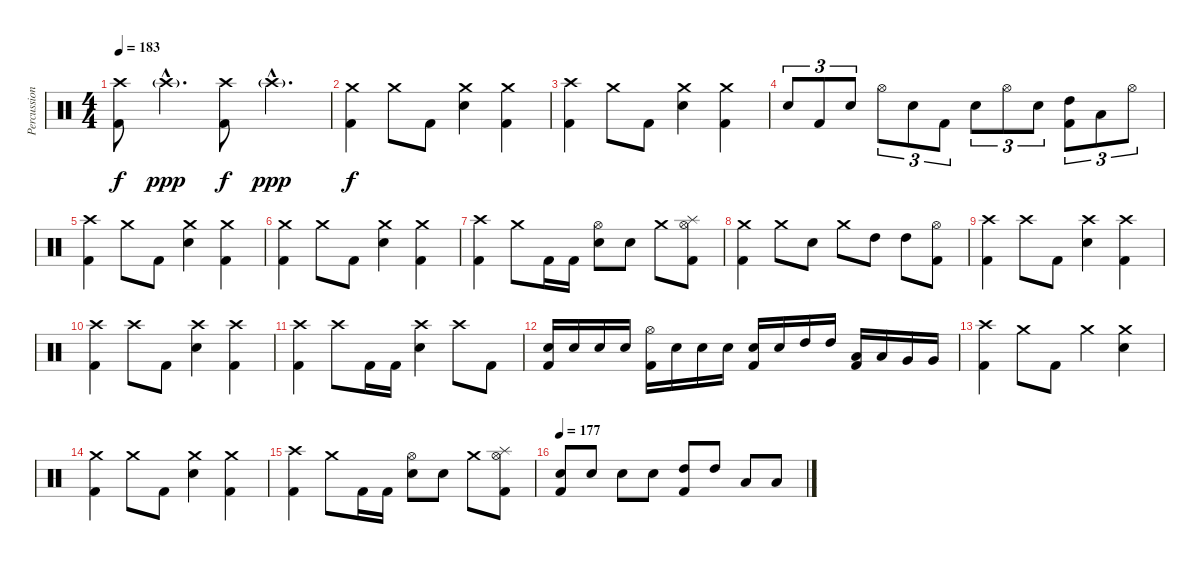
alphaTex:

\track ("Percussion" "Percussion") {instrument percussion}
\staff {score}
\articulation defaults
\ts (4 4)
\tempo 183
\clef neutral
\ks c
("Crash high (hit)" "Kick (hit) 2").8{dy f} "Crash high (hit)"{g hac}.4{d dy ppp} ("Crash high (hit)" "Kick (hit) 2").8{dy f} "Crash high (hit)"{g hac}.4{d dy ppp} |
("Crash medium (hit)" "Kick (hit) 2").4{dy f} "Crash medium (hit)".8 "Kick (hit) 2".8 ("Crash medium (hit)" "Electric Snare (hit)").4 ("Crash medium (hit)" "Kick (hit) 2").4 |
("Crash high (hit)" "Kick (hit) 2").4 "Crash medium (hit)".8 "Kick (hit) 2".8 ("Crash medium (hit)" "Electric Snare (hit)").4 ("Crash medium (hit)" "Kick (hit) 2").4 |
"Electric Snare (hit)".8{tu (3 2)} "Kick (hit) 2".8{tu (3 2)} "Electric Snare (hit)".8{tu (3 2)} "Hi-Hat (open)".8{tu (3 2)} "Electric Snare (hit)".8{tu (3 2)} "Kick (hit) 2".8{tu (3 2)} "Electric Snare (hit)".8{tu (3 2)} "Hi-Hat (open)".8{tu (3 2)} "Electric Snare (hit)".8{tu (3 2)} ("High Tom (hit)" "Kick (hit) 2").8{tu (3 2)} "Low Tom (hit)".8{tu (3 2)} "Hi-Hat (open)".8{tu (3 2)} |
("Crash high (hit)" "Kick (hit) 2").4 "Crash medium (hit)".8 "Kick (hit) 2".8 ("Crash medium (hit)" "Electric Snare (hit)").4 ("Crash medium (hit)" "Kick (hit) 2").4 |
("Crash medium (hit)" "Kick (hit) 2").4 "Crash medium (hit)".8 "Kick (hit) 2".8 ("Crash medium (hit)" "Electric Snare (hit)").4 ("Crash medium (hit)" "Kick (hit) 2").4 |
("Crash high (hit)" "Kick (hit) 2").4 "Crash medium (hit)".8 "Kick (hit) 2".16 "Kick (hit) 2".16 ("Hi-Hat (open)" "Electric Snare (hit)").8 "Electric Snare (hit)".8 "Crash medium (hit)".8 ("Hi-Hat (open)" "Splash (hit)" "Kick (hit) 2").8 |
("Crash medium (hit)" "Kick (hit) 2").4 "Crash medium (hit)".8 "Electric Snare (hit)".8 "Crash medium (hit)".8 "High Tom (hit)".8 "High Tom (hit)".8 ("Hi-Hat (open)" "Kick (hit) 2").8 |
("Crash high (hit)" "Kick (hit) 2").4 "Crash high (hit)".8 "Kick (hit) 2".8 ("Crash high (hit)" "Electric Snare (hit)").4 ("Crash high (hit)" "Kick (hit) 2").4 |
("Crash high (hit)" "Kick (hit) 2").4 "Crash high (hit)".8 "Kick (hit) 2".8 ("Crash high (hit)" "Electric Snare (hit)").4 ("Crash high (hit)" "Kick (hit) 2").4 |
("Crash high (hit)" "Kick (hit) 2").4 "Crash high (hit)".8 "Kick (hit) 2".16 "Kick (hit) 2".16 ("Crash high (hit)" "Electric Snare (hit)").4 "Crash high (hit)".8 "Kick (hit) 2".8 |
("Electric Snare (hit)" "Kick (hit) 2").16 "Electric Snare (hit)".16 "Electric Snare (hit)".16 "Electric Snare (hit)".16 ("Hi-Hat (open)" "Kick (hit) 2").16 "Electric Snare (hit)".16 "Electric Snare (hit)".16 "Electric Snare (hit)".16 ("Electric Snare (hit)" "Kick (hit) 2").16 "Electric Snare (hit)".16 "High Tom (hit)".16 "High Tom (hit)".16 ("Low Tom (hit)" "Kick (hit) 2").16 "Low Tom (hit)".16 "Very Low Tom (hit)".16 "Very Low Tom (hit)".16 |
("Crash high (hit)" "Kick (hit) 2").4 "Crash medium (hit)".8 "Kick (hit) 2".8 "Crash medium (hit)".4 ("Crash medium (hit)" "Electric Snare (hit)").4 |
("Crash medium (hit)" "Kick (hit) 2").4 "Crash medium (hit)".8 "Kick (hit) 2".8 ("Crash medium (hit)" "Electric Snare (hit)").4 ("Crash medium (hit)" "Kick (hit) 2").4 |
("Crash high (hit)" "Kick (hit) 2").4 "Crash medium (hit)".8 "Kick (hit) 2".16 "Kick (hit) 2".16 ("Hi-Hat (open)" "Electric Snare (hit)").8 "Electric Snare (hit)".8 "Crash medium (hit)".8 ("Hi-Hat (open)" "Splash (hit)" "Kick (hit) 2").8 |
\tempo 177
("Electric Snare (hit)" "Kick (hit) 2").8 "Electric Snare (hit)".8 "Electric Snare (hit)".8 "Electric Snare (hit)".8 ("High Tom (hit)" "Kick (hit) 2").8 "High Tom (hit)".8 "Low Tom (hit)".8 "Low Tom (hit)".8
